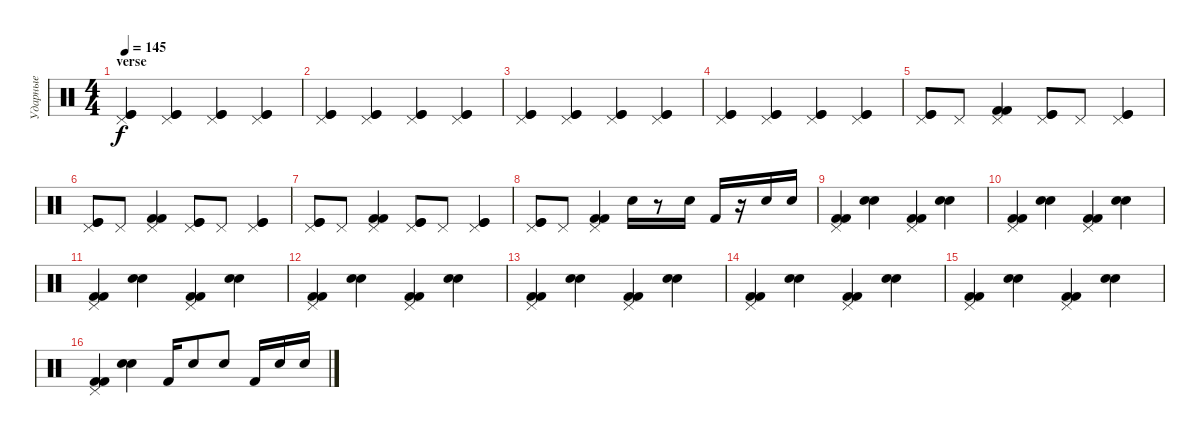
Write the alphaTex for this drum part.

\track ("Ударные" "Ударные") {instrument percussion}
\staff {score}
\articulation defaults
\ts (4 4)
\section ("" "verse")
\tempo 145
\clef neutral
\ks c
("Pedal Hi-Hat (hit)" "Kick (hit)" "Kick (hit)").4{dy f} ("Pedal Hi-Hat (hit)" "Kick (hit)" "Kick (hit)").4 ("Pedal Hi-Hat (hit)" "Kick (hit)" "Kick (hit)").4 ("Pedal Hi-Hat (hit)" "Kick (hit)" "Kick (hit)").4 |
("Pedal Hi-Hat (hit)" "Kick (hit)" "Kick (hit)").4 ("Pedal Hi-Hat (hit)" "Kick (hit)" "Kick (hit)").4 ("Pedal Hi-Hat (hit)" "Kick (hit)" "Kick (hit)").4 ("Pedal Hi-Hat (hit)" "Kick (hit)" "Kick (hit)").4 |
("Pedal Hi-Hat (hit)" "Kick (hit)" "Kick (hit)").4 ("Pedal Hi-Hat (hit)" "Kick (hit)" "Kick (hit)").4 ("Pedal Hi-Hat (hit)" "Kick (hit)" "Kick (hit)").4 ("Pedal Hi-Hat (hit)" "Kick (hit)" "Kick (hit)").4 |
("Pedal Hi-Hat (hit)" "Kick (hit)" "Kick (hit)").4 ("Pedal Hi-Hat (hit)" "Kick (hit)" "Kick (hit)").4 ("Pedal Hi-Hat (hit)" "Kick (hit)" "Kick (hit)").4 ("Pedal Hi-Hat (hit)" "Kick (hit)" "Kick (hit)").4 |
("Pedal Hi-Hat (hit)" "Kick (hit)" "Kick (hit)").8 "Pedal Hi-Hat (hit)".8 ("Pedal Hi-Hat (hit)" "Kick (hit) 2" "Kick (hit) 2").4 ("Pedal Hi-Hat (hit)" "Kick (hit)" "Kick (hit)").8 "Pedal Hi-Hat (hit)".8 ("Pedal Hi-Hat (hit)" "Kick (hit)" "Kick (hit)").4 |
("Pedal Hi-Hat (hit)" "Kick (hit)" "Kick (hit)").8 "Pedal Hi-Hat (hit)".8 ("Pedal Hi-Hat (hit)" "Kick (hit) 2" "Kick (hit) 2").4 ("Pedal Hi-Hat (hit)" "Kick (hit)" "Kick (hit)").8 "Pedal Hi-Hat (hit)".8 ("Pedal Hi-Hat (hit)" "Kick (hit)" "Kick (hit)").4 |
("Pedal Hi-Hat (hit)" "Kick (hit)" "Kick (hit)").8 "Pedal Hi-Hat (hit)".8 ("Pedal Hi-Hat (hit)" "Kick (hit) 2" "Kick (hit) 2").4 ("Pedal Hi-Hat (hit)" "Kick (hit)" "Kick (hit)").8 "Pedal Hi-Hat (hit)".8 ("Pedal Hi-Hat (hit)" "Kick (hit)" "Kick (hit)").4 |
("Pedal Hi-Hat (hit)" "Kick (hit)" "Kick (hit)").8 "Pedal Hi-Hat (hit)".8 ("Pedal Hi-Hat (hit)" "Kick (hit) 2" "Kick (hit) 2").4 "Snare (hit) 2".16 r.8 "Snare (hit) 2".16 "Kick (hit) 2".16 r.16 "Snare (hit) 2".16 "Snare (hit) 2".16 |
("Pedal Hi-Hat (hit)" "Kick (hit) 2" "Kick (hit) 2").4 ("Snare (hit) 2" "Snare (hit) 2").4 ("Pedal Hi-Hat (hit)" "Kick (hit) 2" "Kick (hit) 2").4 ("Snare (hit) 2" "Snare (hit) 2").4 |
("Pedal Hi-Hat (hit)" "Kick (hit) 2" "Kick (hit) 2").4 ("Snare (hit) 2" "Snare (hit) 2").4 ("Pedal Hi-Hat (hit)" "Kick (hit) 2" "Kick (hit) 2").4 ("Snare (hit) 2" "Snare (hit) 2").4 |
("Pedal Hi-Hat (hit)" "Kick (hit) 2" "Kick (hit) 2").4 ("Snare (hit) 2" "Snare (hit) 2").4 ("Pedal Hi-Hat (hit)" "Kick (hit) 2" "Kick (hit) 2").4 ("Snare (hit) 2" "Snare (hit) 2").4 |
("Pedal Hi-Hat (hit)" "Kick (hit) 2" "Kick (hit) 2").4 ("Snare (hit) 2" "Snare (hit) 2").4 ("Pedal Hi-Hat (hit)" "Kick (hit) 2" "Kick (hit) 2").4 ("Snare (hit) 2" "Snare (hit) 2").4 |
("Pedal Hi-Hat (hit)" "Kick (hit) 2" "Kick (hit) 2").4 ("Snare (hit) 2" "Snare (hit) 2").4 ("Pedal Hi-Hat (hit)" "Kick (hit) 2" "Kick (hit) 2").4 ("Snare (hit) 2" "Snare (hit) 2").4 |
("Pedal Hi-Hat (hit)" "Kick (hit) 2" "Kick (hit) 2").4 ("Snare (hit) 2" "Snare (hit) 2").4 ("Pedal Hi-Hat (hit)" "Kick (hit) 2" "Kick (hit) 2").4 ("Snare (hit) 2" "Snare (hit) 2").4 |
("Pedal Hi-Hat (hit)" "Kick (hit) 2" "Kick (hit) 2").4 ("Snare (hit) 2" "Snare (hit) 2").4 ("Pedal Hi-Hat (hit)" "Kick (hit) 2" "Kick (hit) 2").4 ("Snare (hit) 2" "Snare (hit) 2").4 |
("Pedal Hi-Hat (hit)" "Kick (hit) 2" "Kick (hit) 2").4 ("Snare (hit) 2" "Snare (hit) 2").4 "Kick (hit) 2".16 "Snare (hit) 2".8 "Snare (hit) 2".8 "Kick (hit) 2".16 "Snare (hit) 2".16 "Snare (hit) 2".16
